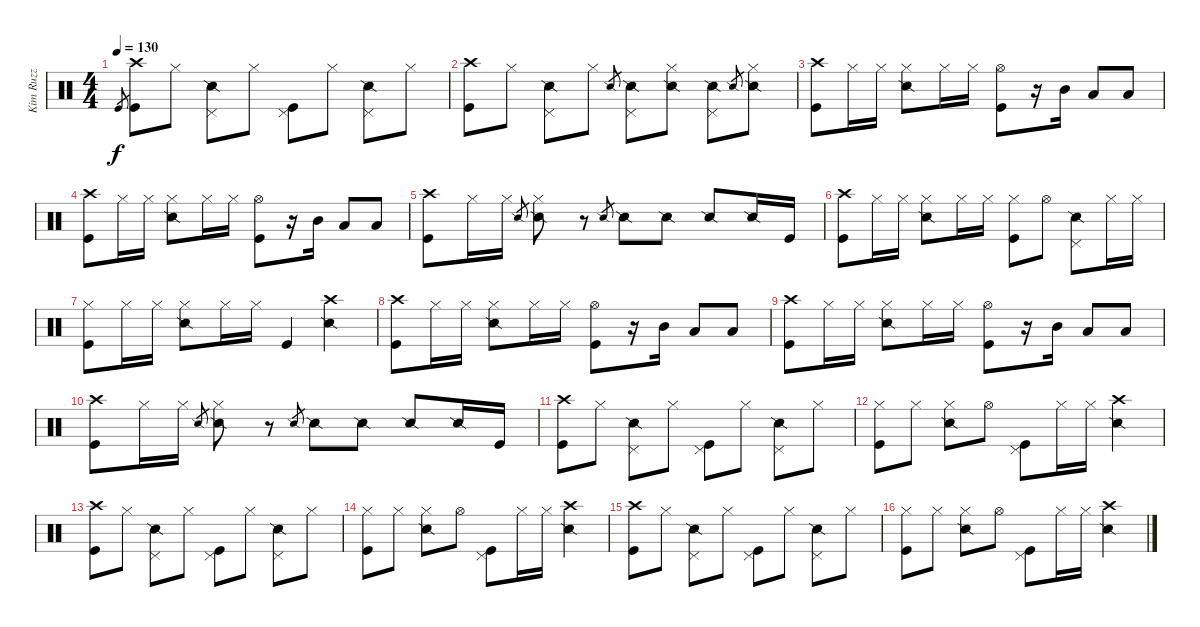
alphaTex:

\track ("Kim Ruzz" "Kim Ruzz") {instrument percussion}
\staff {score}
\articulation defaults
\ts (4 4)
\tempo 130
\clef neutral
\ks c "Kick (hit)".8{gr dy f}
("Crash high (hit)" "Kick (hit)").8 "Hi-Hat (closed)".8 ("Pedal Hi-Hat (hit)" "Snare (side stick) 2").8 "Hi-Hat (closed)".8 ("Pedal Hi-Hat (hit)" "Kick (hit)").8 "Hi-Hat (closed)".8 ("Pedal Hi-Hat (hit)" "Snare (side stick) 2").8 "Hi-Hat (closed)".8 |
("Crash high (hit)" "Kick (hit)").8 "Hi-Hat (closed)".8 ("Pedal Hi-Hat (hit)" "Snare (side stick) 2").8 "Hi-Hat (closed)".8 "Snare (side stick) 2".8{gr} ("Pedal Hi-Hat (hit)" "Snare (side stick) 2").8 ("Hi-Hat (closed)" "Snare (side stick) 2").8 ("Pedal Hi-Hat (hit)" "Snare (side stick) 2").8 "Snare (side stick) 2".8{gr} ("Hi-Hat (closed)" "Snare (side stick) 2").8 |
("Crash high (hit)" "Kick (hit)").8 "Hi-Hat (closed)".16 "Hi-Hat (closed)".16 ("Hi-Hat (closed)" "Snare (side stick) 2").8 "Hi-Hat (closed)".16 "Hi-Hat (closed)".16 ("Hi-Hat (open)" "Kick (hit)").8 r.16 "Mid Tom (hit)".16 "Low Tom (hit)".8 "Low Tom (hit)".8 |
("Crash high (hit)" "Kick (hit)").8 "Hi-Hat (closed)".16 "Hi-Hat (closed)".16 ("Hi-Hat (closed)" "Snare (side stick) 2").8 "Hi-Hat (closed)".16 "Hi-Hat (closed)".16 ("Hi-Hat (open)" "Kick (hit)").8 r.16 "Mid Tom (hit)".16 "Low Tom (hit)".8 "Low Tom (hit)".8 |
("Crash high (hit)" "Kick (hit)").8 "Hi-Hat (closed)".16 "Hi-Hat (closed)".16 "Snare (side stick) 2".8{gr} ("Hi-Hat (closed)" "Snare (side stick) 2").8 r.8 "Snare (side stick) 2".8{gr} "Snare (side stick) 2".8 "Snare (side stick) 2".8 "Snare (side stick) 2".8 "Snare (side stick) 2".16 "Kick (hit)".16 |
("Crash high (hit)" "Kick (hit)").8 "Hi-Hat (closed)".16 "Hi-Hat (closed)".16 ("Hi-Hat (closed)" "Snare (side stick) 2").8 "Hi-Hat (closed)".16 "Hi-Hat (closed)".16 ("Hi-Hat (closed)" "Kick (hit)").8 "Hi-Hat (open)".8 ("Pedal Hi-Hat (hit)" "Snare (side stick) 2").8 "Hi-Hat (closed)".16 "Hi-Hat (closed)".16 |
("Hi-Hat (closed)" "Kick (hit)").8 "Hi-Hat (closed)".16 "Hi-Hat (closed)".16 ("Hi-Hat (closed)" "Snare (side stick) 2").8 "Hi-Hat (closed)".16 "Hi-Hat (closed)".16 "Kick (hit)".4 ("Crash high (hit)" "Snare (side stick) 2").4 |
("Crash high (hit)" "Kick (hit)").8 "Hi-Hat (closed)".16 "Hi-Hat (closed)".16 ("Hi-Hat (closed)" "Snare (side stick) 2").8 "Hi-Hat (closed)".16 "Hi-Hat (closed)".16 ("Hi-Hat (open)" "Kick (hit)").8 r.16 "Mid Tom (hit)".16 "Low Tom (hit)".8 "Low Tom (hit)".8 |
("Crash high (hit)" "Kick (hit)").8 "Hi-Hat (closed)".16 "Hi-Hat (closed)".16 ("Hi-Hat (closed)" "Snare (side stick) 2").8 "Hi-Hat (closed)".16 "Hi-Hat (closed)".16 ("Hi-Hat (open)" "Kick (hit)").8 r.16 "Mid Tom (hit)".16 "Low Tom (hit)".8 "Low Tom (hit)".8 |
("Crash high (hit)" "Kick (hit)").8 "Hi-Hat (closed)".16 "Hi-Hat (closed)".16 "Snare (side stick) 2".8{gr} ("Hi-Hat (closed)" "Snare (side stick) 2").8 r.8 "Snare (side stick) 2".8{gr} "Snare (side stick) 2".8 "Snare (side stick) 2".8 "Snare (side stick) 2".8 "Snare (side stick) 2".16 "Kick (hit)".16 |
("Crash high (hit)" "Kick (hit)").8 "Hi-Hat (closed)".8 ("Pedal Hi-Hat (hit)" "Snare (side stick) 2").8 "Hi-Hat (closed)".8 ("Pedal Hi-Hat (hit)" "Kick (hit)").8 "Hi-Hat (closed)".8 ("Pedal Hi-Hat (hit)" "Snare (side stick) 2").8 "Hi-Hat (closed)".8 |
("Hi-Hat (closed)" "Kick (hit)").8 "Hi-Hat (closed)".8 ("Hi-Hat (closed)" "Snare (side stick) 2").8 "Hi-Hat (open)".8 ("Pedal Hi-Hat (hit)" "Kick (hit)").8 "Hi-Hat (closed)".16 "Hi-Hat (closed)".16 ("Crash high (hit)" "Snare (side stick) 2").4 |
("Crash high (hit)" "Kick (hit)").8 "Hi-Hat (closed)".8 ("Pedal Hi-Hat (hit)" "Snare (side stick) 2").8 "Hi-Hat (closed)".8 ("Pedal Hi-Hat (hit)" "Kick (hit)").8 "Hi-Hat (closed)".8 ("Pedal Hi-Hat (hit)" "Snare (side stick) 2").8 "Hi-Hat (closed)".8 |
("Hi-Hat (closed)" "Kick (hit)").8 "Hi-Hat (closed)".8 ("Hi-Hat (closed)" "Snare (side stick) 2").8 "Hi-Hat (open)".8 ("Pedal Hi-Hat (hit)" "Kick (hit)").8 "Hi-Hat (closed)".16 "Hi-Hat (closed)".16 ("Crash high (hit)" "Snare (side stick) 2").4 |
("Crash high (hit)" "Kick (hit)").8 "Hi-Hat (closed)".8 ("Pedal Hi-Hat (hit)" "Snare (side stick) 2").8 "Hi-Hat (closed)".8 ("Pedal Hi-Hat (hit)" "Kick (hit)").8 "Hi-Hat (closed)".8 ("Pedal Hi-Hat (hit)" "Snare (side stick) 2").8 "Hi-Hat (closed)".8 |
("Hi-Hat (closed)" "Kick (hit)").8 "Hi-Hat (closed)".8 ("Hi-Hat (closed)" "Snare (side stick) 2").8 "Hi-Hat (open)".8 ("Pedal Hi-Hat (hit)" "Kick (hit)").8 "Hi-Hat (closed)".16 "Hi-Hat (closed)".16 ("Crash high (hit)" "Snare (side stick) 2").4
